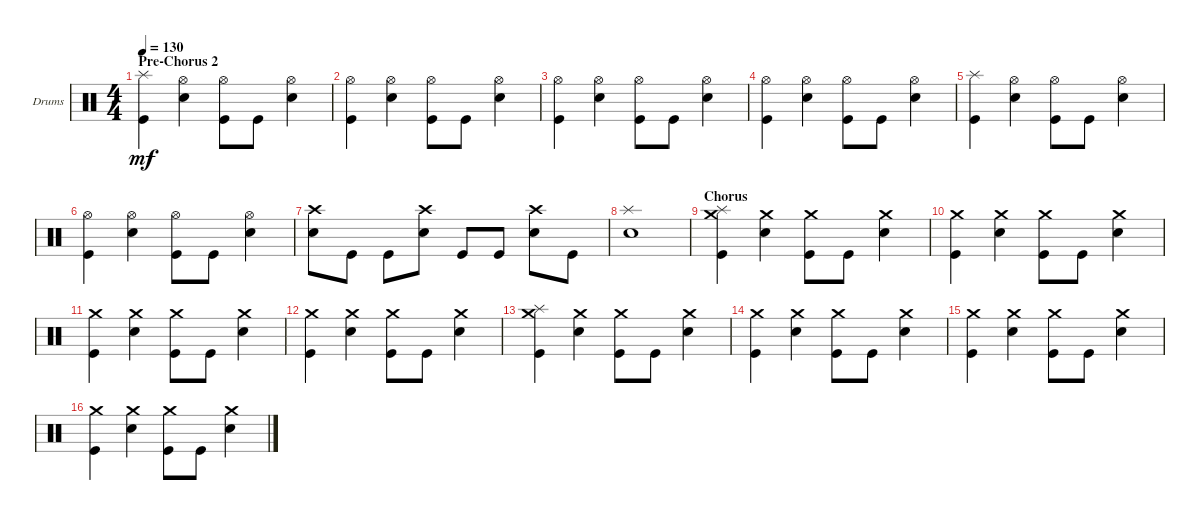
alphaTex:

\defaultSystemsLayout 4
\bracketExtendMode groupsimilarinstruments
\firstSystemTrackNameOrientation horizontal
\otherSystemsTrackNameOrientation horizontal
\track ("Drums" "Drums") {instrument percussion}
\staff {score}
\articulation defaults
\ts (4 4)
\section ("" "Pre-Chorus 2")
\tempo 130
\clef neutral
\ks c
("Kick (hit)" "Splash (hit)").4{dy mf} ("Snare (hit) 2" "Hi-Hat (open)").4 ("Kick (hit)" "Hi-Hat (open)").8 "Kick (hit)".8 ("Snare (hit) 2" "Hi-Hat (open)").4 |
("Kick (hit)" "Hi-Hat (open)").4 ("Snare (hit) 2" "Hi-Hat (open)").4 ("Kick (hit)" "Hi-Hat (open)").8 "Kick (hit)".8 ("Snare (hit) 2" "Hi-Hat (open)").4 |
("Kick (hit)" "Hi-Hat (open)").4 ("Snare (hit) 2" "Hi-Hat (open)").4 ("Kick (hit)" "Hi-Hat (open)").8 "Kick (hit)".8 ("Snare (hit) 2" "Hi-Hat (open)").4 |
("Kick (hit)" "Hi-Hat (open)").4 ("Snare (hit) 2" "Hi-Hat (open)").4 ("Kick (hit)" "Hi-Hat (open)").8 "Kick (hit)".8 ("Snare (hit) 2" "Hi-Hat (open)").4 |
("Kick (hit)" "Splash (hit)").4 ("Snare (hit) 2" "Hi-Hat (open)").4 ("Kick (hit)" "Hi-Hat (open)").8 "Kick (hit)".8 ("Snare (hit) 2" "Hi-Hat (open)").4 |
("Kick (hit)" "Hi-Hat (open)").4 ("Snare (hit) 2" "Hi-Hat (open)").4 ("Kick (hit)" "Hi-Hat (open)").8 "Kick (hit)".8 ("Snare (hit) 2" "Hi-Hat (open)").4 |
("Snare (hit) 2" "Crash high (hit)").8 "Kick (hit)".8 "Kick (hit)".8 ("Snare (hit) 2" "Crash high (hit)").8 "Kick (hit)".8 "Kick (hit)".8 ("Snare (hit) 2" "Crash high (hit)").8 "Kick (hit)".8 |
("Snare (hit) 2" "Splash (hit)").1 |
\section ("" "Chorus")
("Kick (hit)" "Splash (hit)" "Crash medium (hit)").4 ("Snare (hit) 2" "Crash medium (hit)").4 ("Kick (hit)" "Crash medium (hit)").8 "Kick (hit)".8 ("Snare (hit) 2" "Crash medium (hit)").4 |
("Kick (hit)" "Crash medium (hit)").4 ("Snare (hit) 2" "Crash medium (hit)").4 ("Kick (hit)" "Crash medium (hit)").8 "Kick (hit)".8 ("Snare (hit) 2" "Crash medium (hit)").4 |
("Kick (hit)" "Crash medium (hit)").4 ("Snare (hit) 2" "Crash medium (hit)").4 ("Kick (hit)" "Crash medium (hit)").8 "Kick (hit)".8 ("Snare (hit) 2" "Crash medium (hit)").4 |
("Kick (hit)" "Crash medium (hit)").4 ("Snare (hit) 2" "Crash medium (hit)").4 ("Kick (hit)" "Crash medium (hit)").8 "Kick (hit)".8 ("Snare (hit) 2" "Crash medium (hit)").4 |
("Kick (hit)" "Splash (hit)" "Crash medium (hit)").4 ("Snare (hit) 2" "Crash medium (hit)").4 ("Kick (hit)" "Crash medium (hit)").8 "Kick (hit)".8 ("Snare (hit) 2" "Crash medium (hit)").4 |
("Kick (hit)" "Crash medium (hit)").4 ("Snare (hit) 2" "Crash medium (hit)").4 ("Kick (hit)" "Crash medium (hit)").8 "Kick (hit)".8 ("Snare (hit) 2" "Crash medium (hit)").4 |
("Kick (hit)" "Crash medium (hit)").4 ("Snare (hit) 2" "Crash medium (hit)").4 ("Kick (hit)" "Crash medium (hit)").8 "Kick (hit)".8 ("Snare (hit) 2" "Crash medium (hit)").4 |
("Kick (hit)" "Crash medium (hit)").4 ("Snare (hit) 2" "Crash medium (hit)").4 ("Kick (hit)" "Crash medium (hit)").8 "Kick (hit)".8 ("Snare (hit) 2" "Crash medium (hit)").4
